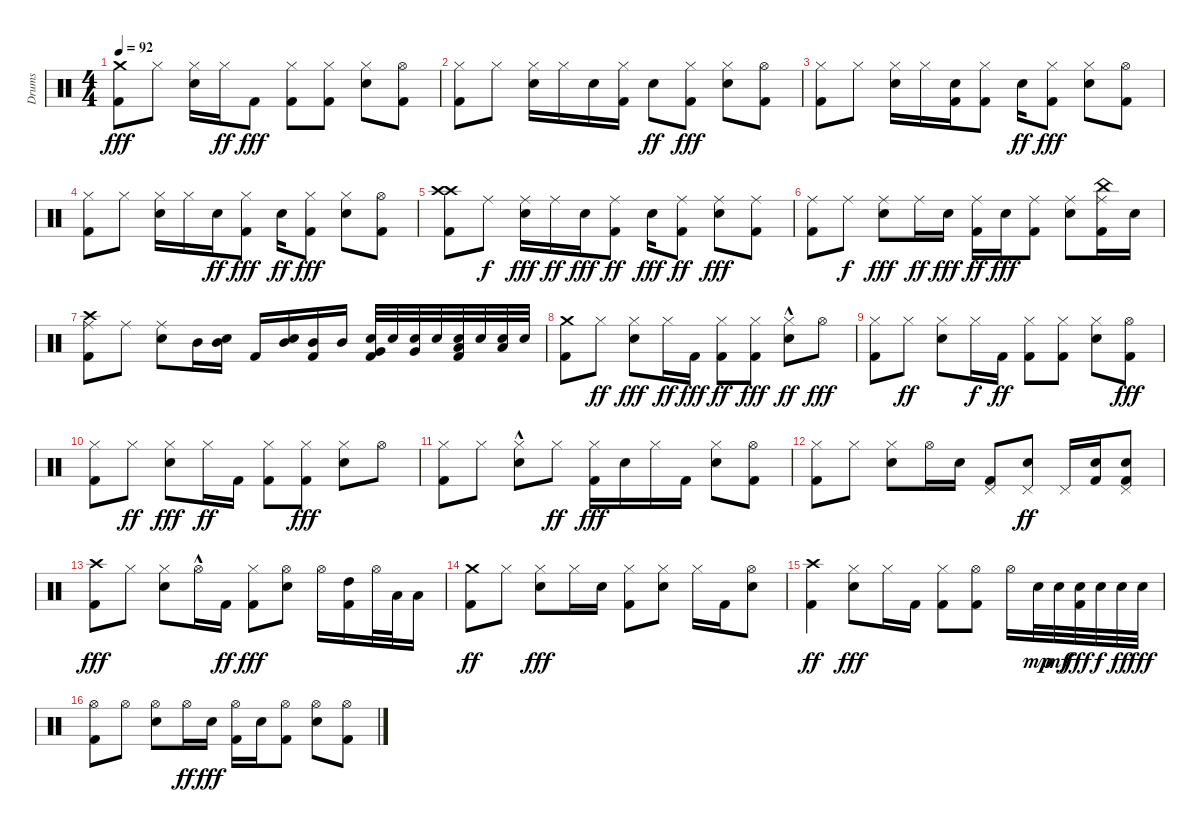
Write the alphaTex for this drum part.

\track ("Drums" "Drums") {instrument percussion}
\staff {score}
\articulation defaults
\ts (4 4)
\tempo 92
\clef neutral
\ks c
("Kick (hit) 2" "Crash medium (hit)").8{dy fff} "Hi-Hat (closed)".8 ("Snare (hit) 2" "Hi-Hat (closed)").16 "Hi-Hat (closed)".16{dy ff} "Kick (hit) 2".8{dy fff} ("Kick (hit) 2" "Hi-Hat (closed)").8 ("Kick (hit) 2" "Hi-Hat (closed)").8 ("Snare (hit) 2" "Hi-Hat (closed)").8 ("Kick (hit) 2" "Hi-Hat (open)").8 |
("Kick (hit) 2" "Hi-Hat (closed)").8 "Hi-Hat (closed)".8 ("Snare (hit) 2" "Hi-Hat (closed)").16 "Hi-Hat (closed)".16 "Snare (hit) 2".16 ("Kick (hit) 2" "Hi-Hat (closed)").16 "Snare (hit) 2".8{dy ff} ("Kick (hit) 2" "Hi-Hat (closed)").8{dy fff} ("Snare (hit) 2" "Hi-Hat (closed)").8 ("Hi-Hat (open)" "Kick (hit) 2").8 |
("Kick (hit) 2" "Hi-Hat (closed)").8 "Hi-Hat (closed)".8 ("Snare (hit) 2" "Hi-Hat (closed)").16 "Hi-Hat (closed)".16 ("Snare (hit) 2" "Kick (hit) 2").16 ("Kick (hit) 2" "Hi-Hat (closed)").8 "Snare (hit) 2".16{dy ff} ("Kick (hit) 2" "Hi-Hat (closed)").8{dy fff} ("Snare (hit) 2" "Hi-Hat (closed)").8 ("Kick (hit) 2" "Hi-Hat (open)").8 |
("Kick (hit) 2" "Hi-Hat (closed)").8 "Hi-Hat (closed)".8 ("Snare (hit) 2" "Hi-Hat (closed)").16 "Hi-Hat (closed)".16 "Snare (hit) 2".16{dy ff} ("Kick (hit) 2" "Hi-Hat (closed)").8{dy fff} "Snare (hit) 2".16{dy ff} ("Kick (hit) 2" "Hi-Hat (closed)").8{dy fff} ("Snare (hit) 2" "Hi-Hat (closed)").8 ("Kick (hit) 2" "Hi-Hat (open)").8 |
("Crash high (hit)" "Kick (hit) 2" "Crash high (hit)").8 "Ride (middle)".8{dy f} ("Snare (hit) 2" "Ride (middle)").16{dy fff} "Ride (middle)".16{dy ff} "Snare (hit) 2".16{dy fff} ("Kick (hit) 2" "Ride (middle)").8{dy ff} "Snare (hit) 2".16{dy fff} ("Kick (hit) 2" "Ride (middle)").8{dy ff} ("Snare (hit) 2" "Ride (middle)").8{dy fff} ("Kick (hit) 2" "Ride (middle)").8 |
("Kick (hit) 2" "Ride (middle)").8 "Ride (middle)".8{dy f} ("Snare (hit) 2" "Ride (middle)").8{dy fff} "Ride (middle)".16{dy ff} "Snare (hit) 2".16{dy fff} ("Kick (hit) 2" "Ride (middle)").16{dy ff} "Snare (hit) 2".16{dy fff} ("Kick (hit) 2" "Ride (middle)").8 ("Snare (hit) 2" "Ride (middle)").8 ("Kick (hit) 2" "Ride (middle)" "China (hit)").16 "Snare (hit) 2".16 |
("Kick (hit) 2" "Crash high (hit)" "Ride (middle)").8 "Ride (middle)".8 ("Snare (hit) 2" "Ride (middle)").8 "Mid Tom (hit)".16 ("Snare (hit) 2" "Mid Tom (hit)").16 "Kick (hit) 2".16 ("Snare (hit) 2" "Mid Tom (hit)").16 ("Kick (hit) 2" "Mid Tom (hit)").16 "Mid Tom (hit)".16 ("Kick (hit) 2" "Snare (hit) 2" "Very Low Tom (hit)").32 "Snare (hit) 2".32 ("Snare (hit) 2" "Very Low Tom (hit)").32 "Snare (hit) 2".32 ("Kick (hit) 2" "Snare (hit) 2" "Low Floor Tom (hit)").32 "Snare (hit) 2".32 ("Snare (hit) 2" "Low Floor Tom (hit)").32 "Snare (hit) 2".32 |
("Kick (hit) 2" "Crash medium (hit)").8 "Hi-Hat (closed)".8{dy ff} ("Snare (hit) 2" "Hi-Hat (closed)").8{dy fff} "Hi-Hat (closed)".16{dy ff} "Kick (hit) 2".16{dy fff} ("Kick (hit) 2" "Hi-Hat (closed)").8{dy ff} ("Kick (hit) 2" "Hi-Hat (closed)").8{dy fff} ("Snare (hit) 2"{hac} "Hi-Hat (closed)").8{dy ff} "Hi-Hat (open)".8{dy fff} |
("Kick (hit) 2" "Hi-Hat (closed)").8 "Hi-Hat (closed)".8{dy ff} ("Snare (hit) 2" "Hi-Hat (closed)").8 "Hi-Hat (closed)".16{dy f} "Kick (hit) 2".16{dy ff} ("Kick (hit) 2" "Hi-Hat (closed)").8 ("Kick (hit) 2" "Hi-Hat (closed)").8 ("Snare (hit) 2" "Hi-Hat (closed)").8 ("Kick (hit) 2" "Hi-Hat (open)").8{dy fff} |
("Kick (hit) 2" "Hi-Hat (closed)").8 "Hi-Hat (closed)".8{dy ff} ("Snare (hit) 2" "Hi-Hat (closed)").8{dy fff} "Hi-Hat (closed)".16{dy ff} "Kick (hit) 2".16 ("Kick (hit) 2" "Hi-Hat (closed)").8 ("Kick (hit) 2" "Hi-Hat (closed)").8{dy fff} ("Snare (hit) 2" "Hi-Hat (closed)").8 "Hi-Hat (open)".8 |
("Kick (hit) 2" "Hi-Hat (closed)").8 "Hi-Hat (closed)".8 ("Snare (hit) 2"{hac} "Hi-Hat (closed)").8 "Hi-Hat (closed)".8{dy ff} ("Kick (hit) 2" "Hi-Hat (closed)").16{dy fff} "Snare (hit) 2".16 "Hi-Hat (closed)".16 "Kick (hit) 2".16 ("Snare (hit) 2" "Hi-Hat (closed)").8 ("Kick (hit) 2" "Hi-Hat (open)").8 |
("Kick (hit) 2" "Hi-Hat (closed)").8 "Hi-Hat (closed)".8 ("Snare (hit) 2" "Hi-Hat (closed)").8 "Hi-Hat (open)".16 "Snare (hit) 2".16 ("Kick (hit) 2" "Pedal Hi-Hat (hit)").8 ("Snare (hit) 2" "Pedal Hi-Hat (hit)").8{dy ff} "Pedal Hi-Hat (hit)".16 ("Kick (hit) 2" "Snare (hit) 2").16 ("Kick (hit) 2" "Snare (hit) 2" "Pedal Hi-Hat (hit)").8 |
("Kick (hit) 2" "Crash high (hit)").8{dy fff} "Hi-Hat (closed)".8 ("Snare (hit) 2" "Hi-Hat (closed)").8 "Hi-Hat (open)"{hac}.16 "Kick (hit) 2".16{dy ff} ("Kick (hit) 2" "Hi-Hat (closed)").8{dy fff} ("Snare (hit) 2" "Hi-Hat (open)").8 "Hi-Hat (open)".16 ("Kick (hit) 2" "High Tom (hit)").16 "Hi-Hat (open)".32 "Low Tom (hit)".32 "Low Floor Tom (hit)".16 |
("Kick (hit) 2" "Crash medium (hit)").8{dy ff} "Hi-Hat (closed)".8 ("Snare (hit) 2" "Hi-Hat (closed)").8{dy fff} "Hi-Hat (closed)".16 "Snare (hit) 2".16 ("Kick (hit) 2" "Hi-Hat (closed)").8 ("Snare (hit) 2" "Hi-Hat (closed)").8 "Hi-Hat (closed)".16 "Kick (hit) 2".16 ("Snare (hit) 2" "Hi-Hat (open)").8 |
("Kick (hit) 2" "Crash high (hit)").4{dy ff} ("Snare (hit) 2" "Hi-Hat (closed)").8{dy fff} "Hi-Hat (closed)".16 "Kick (hit) 2".16 ("Kick (hit) 2" "Hi-Hat (closed)").8 ("Kick (hit) 2" "Hi-Hat (open)").8 "Hi-Hat (open)".16 "Snare (hit) 2".32{dy mp} "Snare (hit) 2".32{dy mf} ("Kick (hit) 2" "Snare (hit) 2").32{dy fff} "Snare (hit) 2".32{dy f} "Snare (hit) 2".32{dy ff} "Snare (hit) 2".32{dy fff} |
("Kick (hit) 2" "Hi-Hat (open)").8 "Hi-Hat (open)".8 ("Snare (hit) 2" "Hi-Hat (open)").8 "Hi-Hat (open)".16{dy ff} "Snare (hit) 2".16{dy fff} ("Kick (hit) 2" "Hi-Hat (open)").16 "Snare (hit) 2".16 ("Kick (hit) 2" "Hi-Hat (open)").8 ("Snare (hit) 2" "Hi-Hat (open)").8 ("Kick (hit) 2" "Hi-Hat (open)").8
